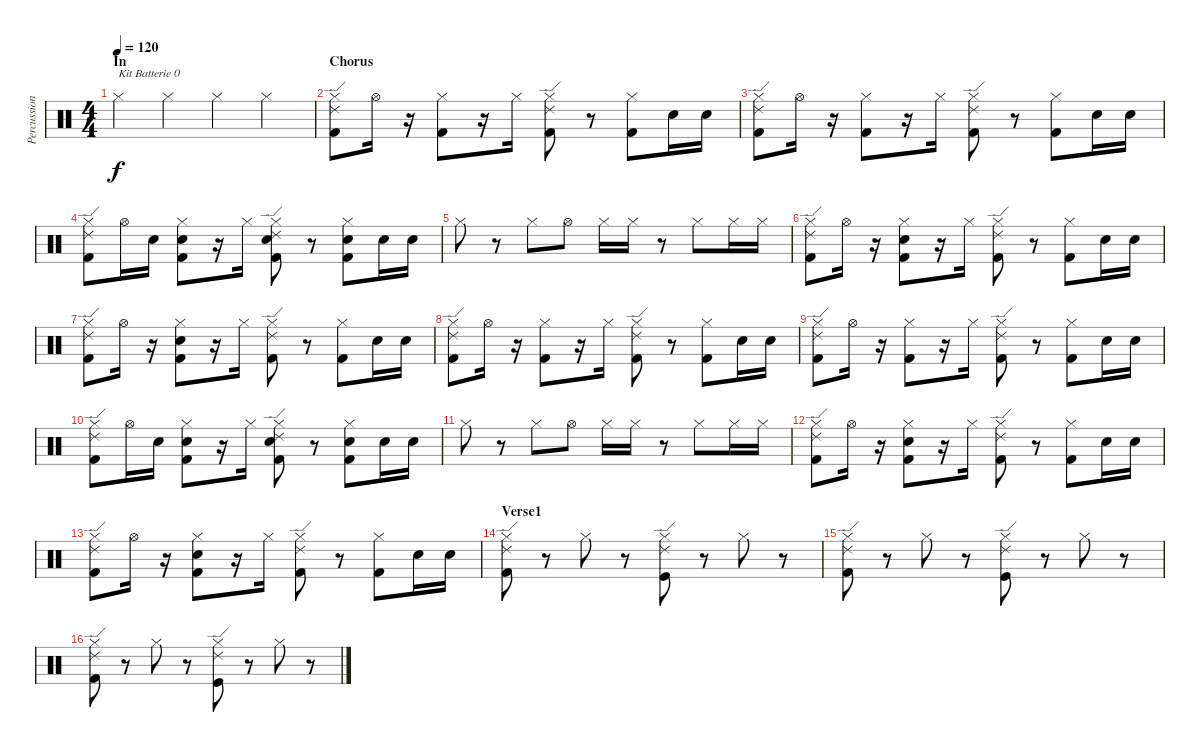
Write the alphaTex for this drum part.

\track ("Percussions" "Percussion") {instrument percussion}
\staff {score}
\articulation defaults
\ts (4 4)
\section ("" "In")
\tempo 120
\clef neutral
\ks c "Hi-Hat (closed)".4{txt "Kit Batterie 0" dy f} "Hi-Hat (closed)".4 "Hi-Hat (closed)".4 "Hi-Hat (closed)".4
|
\section ("" "Chorus")
("Hi-Hat (closed)" "Ride (edge) 2" "Kick (hit) 2").8 "Hi-Hat (open)".16 r.16 ("Hi-Hat (closed)" "Kick (hit) 2").8 r.16 "Hi-Hat (closed)".16 ("Hi-Hat (closed)" "Ride (edge) 2" "Kick (hit) 2").8 r.8 ("Hi-Hat (closed)" "Kick (hit) 2").8 "Electric Snare (hit)".16 "Electric Snare (hit)".16 |
("Hi-Hat (closed)" "Ride (edge) 2" "Kick (hit) 2").8 "Hi-Hat (open)".16 r.16 ("Hi-Hat (closed)" "Kick (hit) 2").8 r.16 "Hi-Hat (closed)".16 ("Hi-Hat (closed)" "Ride (edge) 2" "Kick (hit) 2").8 r.8 ("Hi-Hat (closed)" "Kick (hit) 2").8 "Electric Snare (hit)".16 "Electric Snare (hit)".16 |
("Hi-Hat (closed)" "Ride (edge) 2" "Kick (hit) 2").8 "Hi-Hat (open)".16 "Electric Snare (hit)".16 ("Hi-Hat (closed)" "Electric Snare (hit)" "Kick (hit) 2").8 r.16 "Hi-Hat (closed)".16 ("Hi-Hat (closed)" "Electric Snare (hit)" "Ride (edge) 2" "Kick (hit) 2").8 r.8 ("Hi-Hat (closed)" "Electric Snare (hit)" "Kick (hit) 2").8 "Electric Snare (hit)".16 "Electric Snare (hit)".16 |
"Hi-Hat (closed)".8 r.8 "Hi-Hat (closed)".8 "Hi-Hat (open)".8 "Hi-Hat (closed)".16 "Hi-Hat (closed)".16 r.8 "Hi-Hat (closed)".8 "Hi-Hat (closed)".16 "Hi-Hat (closed)".16 |
("Hi-Hat (closed)" "Ride (edge) 2" "Kick (hit) 2").8 "Hi-Hat (open)".16 r.16 ("Hi-Hat (closed)" "Electric Snare (hit)" "Kick (hit) 2").8 r.16 "Hi-Hat (closed)".16 ("Hi-Hat (closed)" "Ride (edge) 2" "Kick (hit) 2").8 r.8 ("Hi-Hat (closed)" "Kick (hit) 2").8 "Electric Snare (hit)".16 "Electric Snare (hit)".16 |
("Hi-Hat (closed)" "Ride (edge) 2" "Kick (hit) 2").8 "Hi-Hat (open)".16 r.16 ("Hi-Hat (closed)" "Electric Snare (hit)" "Kick (hit) 2").8 r.16 "Hi-Hat (closed)".16 ("Hi-Hat (closed)" "Ride (edge) 2" "Kick (hit) 2").8 r.8 ("Hi-Hat (closed)" "Kick (hit) 2").8 "Electric Snare (hit)".16 "Electric Snare (hit)".16 |
("Hi-Hat (closed)" "Ride (edge) 2" "Kick (hit) 2").8 "Hi-Hat (open)".16 r.16 ("Hi-Hat (closed)" "Kick (hit) 2").8 r.16 "Hi-Hat (closed)".16 ("Hi-Hat (closed)" "Ride (edge) 2" "Kick (hit) 2").8 r.8 ("Hi-Hat (closed)" "Kick (hit) 2").8 "Electric Snare (hit)".16 "Electric Snare (hit)".16 |
("Hi-Hat (closed)" "Ride (edge) 2" "Kick (hit) 2").8 "Hi-Hat (open)".16 r.16 ("Hi-Hat (closed)" "Kick (hit) 2").8 r.16 "Hi-Hat (closed)".16 ("Hi-Hat (closed)" "Ride (edge) 2" "Kick (hit) 2").8 r.8 ("Hi-Hat (closed)" "Kick (hit) 2").8 "Electric Snare (hit)".16 "Electric Snare (hit)".16 |
("Hi-Hat (closed)" "Ride (edge) 2" "Kick (hit) 2").8 "Hi-Hat (open)".16 "Electric Snare (hit)".16 ("Hi-Hat (closed)" "Electric Snare (hit)" "Kick (hit) 2").8 r.16 "Hi-Hat (closed)".16 ("Hi-Hat (closed)" "Electric Snare (hit)" "Ride (edge) 2" "Kick (hit) 2").8 r.8 ("Hi-Hat (closed)" "Electric Snare (hit)" "Kick (hit) 2").8 "Electric Snare (hit)".16 "Electric Snare (hit)".16 |
"Hi-Hat (closed)".8 r.8 "Hi-Hat (closed)".8 "Hi-Hat (open)".8 "Hi-Hat (closed)".16 "Hi-Hat (closed)".16 r.8 "Hi-Hat (closed)".8 "Hi-Hat (closed)".16 "Hi-Hat (closed)".16 |
("Hi-Hat (closed)" "Ride (edge) 2" "Kick (hit) 2").8 "Hi-Hat (open)".16 r.16 ("Hi-Hat (closed)" "Electric Snare (hit)" "Kick (hit) 2").8 r.16 "Hi-Hat (closed)".16 ("Hi-Hat (closed)" "Ride (edge) 2" "Kick (hit) 2").8 r.8 ("Hi-Hat (closed)" "Kick (hit) 2").8 "Electric Snare (hit)".16 "Electric Snare (hit)".16 |
("Hi-Hat (closed)" "Ride (edge) 2" "Kick (hit) 2").8 "Hi-Hat (open)".16 r.16 ("Hi-Hat (closed)" "Electric Snare (hit)" "Kick (hit) 2").8 r.16 "Hi-Hat (closed)".16 ("Hi-Hat (closed)" "Ride (edge) 2" "Kick (hit) 2").8 r.8 ("Hi-Hat (closed)" "Kick (hit) 2").8 "Electric Snare (hit)".16 "Electric Snare (hit)".16 |
\section ("" "Verse1")
("Hi-Hat (closed)" "Ride (edge) 2" "Kick (hit) 2").8 r.8 "Hi-Hat (closed)".8 r.8 ("Hi-Hat (closed)" "Ride (edge) 2" "Kick (hit)").8 r.8 "Hi-Hat (closed)".8 r.8 |
("Hi-Hat (closed)" "Ride (edge) 2" "Kick (hit) 2").8 r.8 "Hi-Hat (closed)".8 r.8 ("Hi-Hat (closed)" "Ride (edge) 2" "Kick (hit)").8 r.8 "Hi-Hat (closed)".8 r.8 |
("Hi-Hat (closed)" "Ride (edge) 2" "Kick (hit) 2").8 r.8 "Hi-Hat (closed)".8 r.8 ("Hi-Hat (closed)" "Ride (edge) 2" "Kick (hit)").8 r.8 "Hi-Hat (closed)".8 r.8
